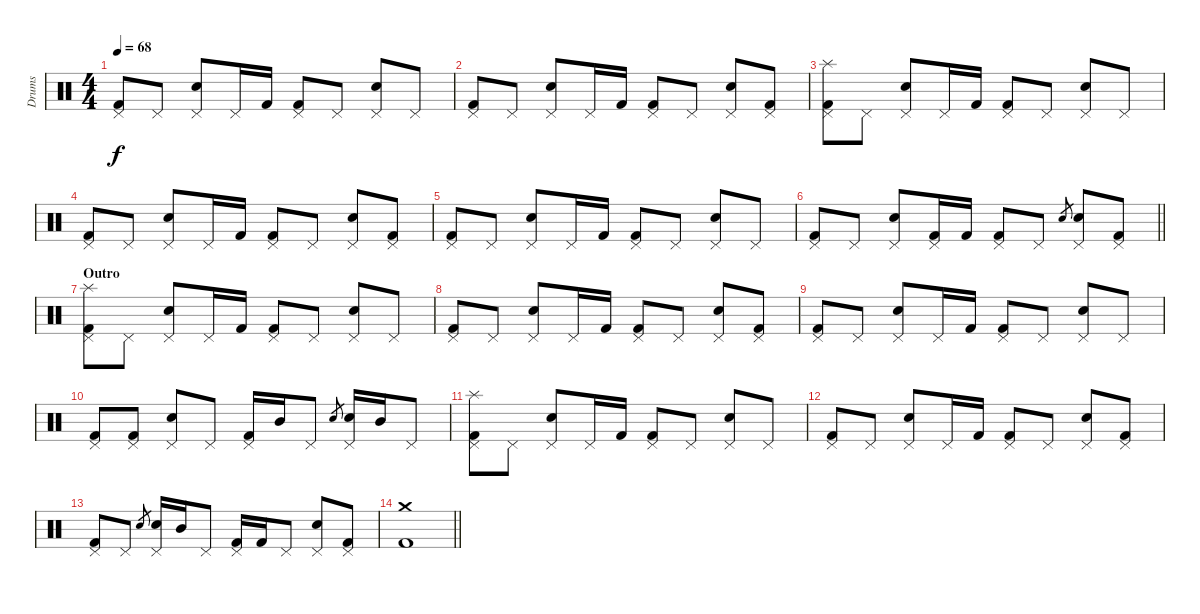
\track ("Drums" "Drums") {instrument percussion}
\staff {score}
\articulation defaults
\ts (4 4)
\tempo 68
\clef neutral
\ks c
("Pedal Hi-Hat (hit)" "Kick (hit) 2").8{dy f} "Pedal Hi-Hat (hit)".8 ("Pedal Hi-Hat (hit)" "Electric Snare (hit)").8 "Pedal Hi-Hat (hit)".16 "Kick (hit) 2".16 ("Pedal Hi-Hat (hit)" "Kick (hit) 2").8 "Pedal Hi-Hat (hit)".8 ("Pedal Hi-Hat (hit)" "Electric Snare (hit)").8 "Pedal Hi-Hat (hit)".8 |
("Pedal Hi-Hat (hit)" "Kick (hit) 2").8 "Pedal Hi-Hat (hit)".8 ("Pedal Hi-Hat (hit)" "Electric Snare (hit)").8 "Pedal Hi-Hat (hit)".16 "Kick (hit) 2".16 ("Pedal Hi-Hat (hit)" "Kick (hit) 2").8 "Pedal Hi-Hat (hit)".8 ("Pedal Hi-Hat (hit)" "Electric Snare (hit)").8 ("Pedal Hi-Hat (hit)" "Kick (hit) 2").8 |
("Pedal Hi-Hat (hit)" "Splash (hit)" "Kick (hit) 2").8 "Pedal Hi-Hat (hit)".8 ("Pedal Hi-Hat (hit)" "Electric Snare (hit)").8 "Pedal Hi-Hat (hit)".16 "Kick (hit) 2".16 ("Pedal Hi-Hat (hit)" "Kick (hit) 2").8 "Pedal Hi-Hat (hit)".8 ("Pedal Hi-Hat (hit)" "Electric Snare (hit)").8 "Pedal Hi-Hat (hit)".8 |
("Pedal Hi-Hat (hit)" "Kick (hit) 2").8 "Pedal Hi-Hat (hit)".8 ("Pedal Hi-Hat (hit)" "Electric Snare (hit)").8 "Pedal Hi-Hat (hit)".16 "Kick (hit) 2".16 ("Pedal Hi-Hat (hit)" "Kick (hit) 2").8 "Pedal Hi-Hat (hit)".8 ("Pedal Hi-Hat (hit)" "Electric Snare (hit)").8 ("Pedal Hi-Hat (hit)" "Kick (hit) 2").8 |
("Pedal Hi-Hat (hit)" "Kick (hit) 2").8 "Pedal Hi-Hat (hit)".8 ("Pedal Hi-Hat (hit)" "Electric Snare (hit)").8 "Pedal Hi-Hat (hit)".16 "Kick (hit) 2".16 ("Pedal Hi-Hat (hit)" "Kick (hit) 2").8 "Pedal Hi-Hat (hit)".8 ("Pedal Hi-Hat (hit)" "Electric Snare (hit)").8 "Pedal Hi-Hat (hit)".8 |
\barLineRight lightlight
("Pedal Hi-Hat (hit)" "Kick (hit) 2").8 "Pedal Hi-Hat (hit)".8 ("Pedal Hi-Hat (hit)" "Electric Snare (hit)").8 ("Pedal Hi-Hat (hit)" "Kick (hit) 2").16 "Kick (hit) 2".16 ("Pedal Hi-Hat (hit)" "Kick (hit) 2").8 "Pedal Hi-Hat (hit)".8 "Electric Snare (hit)"{h}.8{gr} ("Pedal Hi-Hat (hit)" "Electric Snare (hit)").8 ("Pedal Hi-Hat (hit)" "Kick (hit) 2").8 |
\section ("" "Outro")
("Pedal Hi-Hat (hit)" "Splash (hit)" "Kick (hit) 2").8 "Pedal Hi-Hat (hit)".8 ("Pedal Hi-Hat (hit)" "Electric Snare (hit)").8 "Pedal Hi-Hat (hit)".16 "Kick (hit) 2".16 ("Pedal Hi-Hat (hit)" "Kick (hit) 2").8 "Pedal Hi-Hat (hit)".8 ("Pedal Hi-Hat (hit)" "Electric Snare (hit)").8 "Pedal Hi-Hat (hit)".8 |
("Pedal Hi-Hat (hit)" "Kick (hit) 2").8 "Pedal Hi-Hat (hit)".8 ("Pedal Hi-Hat (hit)" "Electric Snare (hit)").8 "Pedal Hi-Hat (hit)".16 "Kick (hit) 2".16 ("Pedal Hi-Hat (hit)" "Kick (hit) 2").8 "Pedal Hi-Hat (hit)".8 ("Pedal Hi-Hat (hit)" "Electric Snare (hit)").8 ("Pedal Hi-Hat (hit)" "Kick (hit) 2").8 |
("Pedal Hi-Hat (hit)" "Kick (hit) 2").8 "Pedal Hi-Hat (hit)".8 ("Pedal Hi-Hat (hit)" "Electric Snare (hit)").8 "Pedal Hi-Hat (hit)".16 "Kick (hit) 2".16 ("Pedal Hi-Hat (hit)" "Kick (hit) 2").8 "Pedal Hi-Hat (hit)".8 ("Pedal Hi-Hat (hit)" "Electric Snare (hit)").8 "Pedal Hi-Hat (hit)".8 |
("Pedal Hi-Hat (hit)" "Kick (hit) 2").8 ("Pedal Hi-Hat (hit)" "Kick (hit) 2").8 ("Pedal Hi-Hat (hit)" "Electric Snare (hit)").8 "Pedal Hi-Hat (hit)".8 ("Pedal Hi-Hat (hit)" "Kick (hit) 2").16 "Mid Tom (hit)".16 "Pedal Hi-Hat (hit)".8 "Electric Snare (hit)"{h}.8{gr} ("Pedal Hi-Hat (hit)" "Electric Snare (hit)").16 "Mid Tom (hit)".16 "Pedal Hi-Hat (hit)".8 |
("Pedal Hi-Hat (hit)" "Splash (hit)" "Kick (hit) 2").8 "Pedal Hi-Hat (hit)".8 ("Pedal Hi-Hat (hit)" "Electric Snare (hit)").8 "Pedal Hi-Hat (hit)".16 "Kick (hit) 2".16 ("Pedal Hi-Hat (hit)" "Kick (hit) 2").8 "Pedal Hi-Hat (hit)".8 ("Pedal Hi-Hat (hit)" "Electric Snare (hit)").8 "Pedal Hi-Hat (hit)".8 |
("Pedal Hi-Hat (hit)" "Kick (hit) 2").8 "Pedal Hi-Hat (hit)".8 ("Pedal Hi-Hat (hit)" "Electric Snare (hit)").8 "Pedal Hi-Hat (hit)".16 "Kick (hit) 2".16 ("Pedal Hi-Hat (hit)" "Kick (hit) 2").8 "Pedal Hi-Hat (hit)".8 ("Pedal Hi-Hat (hit)" "Electric Snare (hit)").8 ("Pedal Hi-Hat (hit)" "Kick (hit) 2").8 |
("Pedal Hi-Hat (hit)" "Kick (hit) 2").8 "Pedal Hi-Hat (hit)".8 "Electric Snare (hit)"{h}.8{gr} ("Pedal Hi-Hat (hit)" "Electric Snare (hit)").16 "Mid Tom (hit)".16 "Pedal Hi-Hat (hit)".8 ("Pedal Hi-Hat (hit)" "Kick (hit) 2").16 "Kick (hit) 2".16 "Pedal Hi-Hat (hit)".8 ("Pedal Hi-Hat (hit)" "Electric Snare (hit)").8 ("Pedal Hi-Hat (hit)" "Kick (hit) 2").8 |
\barLineRight lightlight
("Crash medium (hit)" "Kick (hit) 2").1
